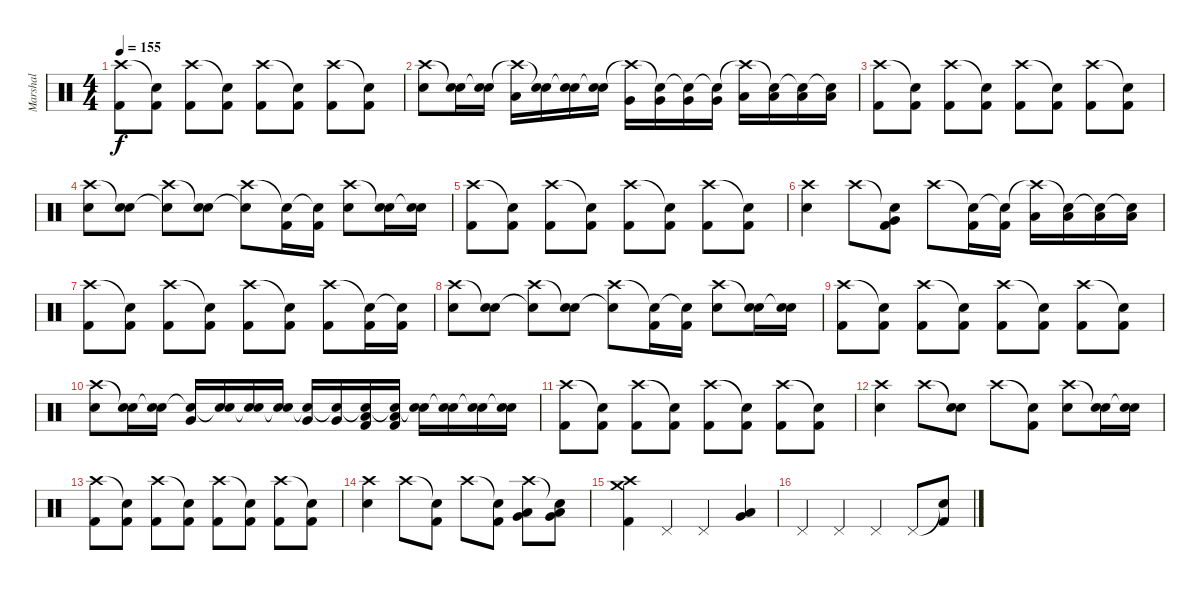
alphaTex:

\track ("Marshal" "Marshal") {instrument percussion}
\staff {score}
\articulation defaults
\ts (4 4)
\tempo 155
\clef neutral
\ks c
("Crash high (hit)" "Kick (hit) 2").8{dy f} ("Snare (hit)"{t} "Kick (hit) 2").8 ("Crash high (hit)" "Kick (hit) 2").8 ("Snare (hit)"{t} "Kick (hit) 2").8 ("Crash high (hit)" "Kick (hit) 2").8 ("Snare (hit)"{t} "Kick (hit) 2").8 ("Crash high (hit)" "Kick (hit) 2").8 ("Snare (hit)"{t} "Kick (hit) 2").8 |
("Crash high (hit)" "Electric Snare (hit)").8 ("Snare (hit)"{t} "Electric Snare (hit)").16 ("Snare (hit)"{t} "Electric Snare (hit)").16 ("Crash high (hit)"{t} "Low Tom (hit)").16 ("Snare (hit)"{t} "Electric Snare (hit)").16 ("Snare (hit)"{t} "Electric Snare (hit)").16 ("Snare (hit)"{t} "Electric Snare (hit)").16 ("Crash high (hit)"{t} "Very Low Tom (hit)").16 ("Snare (hit)"{t} "Very Low Tom (hit)").16 ("Snare (hit)"{t} "Very Low Tom (hit)").16 ("Snare (hit)"{t} "Very Low Tom (hit)").16 ("Crash high (hit)"{t} "Low Floor Tom (hit)").16 ("Snare (hit)"{t} "Low Floor Tom (hit)").16 ("Snare (hit)"{t} "Low Floor Tom (hit)").16 ("Snare (hit)"{t} "Low Floor Tom (hit)").16 |
("Crash high (hit)" "Kick (hit) 2").8 ("Snare (hit)"{t} "Kick (hit) 2").8 ("Crash high (hit)" "Kick (hit) 2").8 ("Snare (hit)"{t} "Kick (hit) 2").8 ("Crash high (hit)" "Kick (hit) 2").8 ("Snare (hit)"{t} "Kick (hit) 2").8 ("Crash high (hit)" "Kick (hit) 2").8 ("Snare (hit)"{t} "Kick (hit) 2").8 |
("Crash high (hit)" "Electric Snare (hit)").8 ("Snare (hit)"{t} "Electric Snare (hit)").8 ("Crash high (hit)" "Snare (hit)"{t}).8 ("Snare (hit)"{t} "Electric Snare (hit)").8 ("Crash high (hit)" "Snare (hit)"{t}).8 ("Snare (hit)"{t} "Kick (hit) 2").16 ("Snare (hit)"{t} "Kick (hit) 2").16 ("Crash high (hit)" "Electric Snare (hit)").8 ("Snare (hit)"{t} "Electric Snare (hit)").16 ("Snare (hit)"{t} "Electric Snare (hit)").16 |
("Crash high (hit)" "Kick (hit) 2").8 ("Snare (hit)"{t} "Kick (hit) 2").8 ("Crash high (hit)" "Kick (hit) 2").8 ("Snare (hit)"{t} "Kick (hit) 2").8 ("Crash high (hit)" "Kick (hit) 2").8 ("Snare (hit)"{t} "Kick (hit) 2").8 ("Crash high (hit)" "Kick (hit) 2").8 ("Snare (hit)"{t} "Kick (hit) 2").8 |
("Crash high (hit)" "Electric Snare (hit)").4 "Crash high (hit)".8 ("Snare (hit)"{t} "Very Low Tom (hit)" "Kick (hit) 2").8 "Crash high (hit)".8 ("Snare (hit)"{t} "Kick (hit) 2").16 ("Snare (hit)"{t} "Kick (hit) 2").16 ("Crash high (hit)"{t} "Low Floor Tom (hit)").16 ("Snare (hit)"{t} "Low Floor Tom (hit)").16 ("Snare (hit)"{t} "Low Floor Tom (hit)").16 ("Snare (hit)"{t} "Low Floor Tom (hit)").16 |
("Crash high (hit)" "Kick (hit) 2").8 ("Snare (hit)"{t} "Kick (hit) 2").8 ("Crash high (hit)" "Kick (hit) 2").8 ("Snare (hit)"{t} "Kick (hit) 2").8 ("Crash high (hit)" "Kick (hit) 2").8 ("Snare (hit)"{t} "Kick (hit) 2").8 ("Crash high (hit)" "Kick (hit) 2").8 ("Snare (hit)"{t} "Kick (hit) 2").16 ("Snare (hit)"{t} "Kick (hit) 2").16 |
("Crash high (hit)" "Electric Snare (hit)").8 ("Snare (hit)"{t} "Electric Snare (hit)").8 ("Crash high (hit)" "Snare (hit)"{t}).8 ("Snare (hit)"{t} "Electric Snare (hit)").8 ("Crash high (hit)" "Snare (hit)"{t}).8 ("Snare (hit)"{t} "Kick (hit) 2").16 ("Snare (hit)"{t} "Kick (hit) 2").16 ("Crash high (hit)" "Electric Snare (hit)").8 ("Snare (hit)"{t} "Electric Snare (hit)").16 ("Snare (hit)"{t} "Electric Snare (hit)").16 |
("Crash high (hit)" "Kick (hit) 2").8 ("Snare (hit)"{t} "Kick (hit) 2").8 ("Crash high (hit)" "Kick (hit) 2").8 ("Snare (hit)"{t} "Kick (hit) 2").8 ("Crash high (hit)" "Kick (hit) 2").8 ("Snare (hit)"{t} "Kick (hit) 2").8 ("Crash high (hit)" "Kick (hit) 2").8 ("Snare (hit)"{t} "Kick (hit) 2").8 |
("Crash high (hit)" "Electric Snare (hit)").8 ("Snare (hit)"{t} "Electric Snare (hit)").16 ("Snare (hit)"{t} "Electric Snare (hit)").16 ("Snare (hit)"{t} "Very Low Tom (hit)").16 ("Snare (hit)"{t} "Electric Snare (hit)").16 ("Snare (hit)"{t} "Electric Snare (hit)").16 ("Snare (hit)"{t} "Electric Snare (hit)").16 ("Snare (hit)"{t} "Very Low Tom (hit)").16 ("Snare (hit)"{t} "Very Low Tom (hit)").16 ("Snare (hit)"{t} "Low Floor Tom (hit)" "Kick (hit) 2").16 ("Snare (hit)"{t} "Low Floor Tom (hit)" "Kick (hit) 2").16 ("Snare (hit)"{t} "Electric Snare (hit)").16 ("Snare (hit)"{t} "Electric Snare (hit)").16 ("Snare (hit)"{t} "Electric Snare (hit)").16 ("Snare (hit)"{t} "Electric Snare (hit)").16 |
("Crash high (hit)" "Kick (hit) 2").8 ("Snare (hit)"{t} "Kick (hit) 2").8 ("Crash high (hit)" "Kick (hit) 2").8 ("Snare (hit)"{t} "Kick (hit) 2").8 ("Crash high (hit)" "Kick (hit) 2").8 ("Snare (hit)"{t} "Kick (hit) 2").8 ("Crash high (hit)" "Kick (hit) 2").8 ("Snare (hit)"{t} "Kick (hit) 2").8 |
("Crash high (hit)" "Electric Snare (hit)").4 "Crash high (hit)".8 ("Snare (hit)"{t} "Electric Snare (hit)").8 "Crash high (hit)".8 ("Snare (hit)"{t} "Kick (hit) 2").8 ("Crash high (hit)" "Electric Snare (hit)").8 ("Snare (hit)"{t} "Electric Snare (hit)").16 ("Snare (hit)"{t} "Electric Snare (hit)").16 |
("Crash high (hit)" "Kick (hit) 2").8 ("Snare (hit)"{t} "Kick (hit) 2").8 ("Crash high (hit)" "Kick (hit) 2").8 ("Snare (hit)"{t} "Kick (hit) 2").8 ("Crash high (hit)" "Kick (hit) 2").8 ("Snare (hit)"{t} "Kick (hit) 2").8 ("Crash high (hit)" "Kick (hit) 2").8 ("Snare (hit)"{t} "Kick (hit) 2").8 |
("Crash high (hit)" "Electric Snare (hit)").4 "Crash high (hit)".8 ("Snare (hit)"{t} "Kick (hit) 2").8 "Crash high (hit)".8 ("Snare (hit)"{t} "Kick (hit) 2").8 ("Crash high (hit)" "Very Low Tom (hit)" "Low Floor Tom (hit)").8 ("Snare (hit)"{t} "Very Low Tom (hit)" "Low Floor Tom (hit)").8 |
("Crash medium (hit)" "Crash high (hit)" "Kick (hit) 2").4 "Pedal Hi-Hat (hit)".4 "Pedal Hi-Hat (hit)".4 ("Very Low Tom (hit)" "Low Floor Tom (hit)").4 |
"Pedal Hi-Hat (hit)".4 "Pedal Hi-Hat (hit)".4 "Pedal Hi-Hat (hit)".4 "Pedal Hi-Hat (hit)".8 ("Snare (hit)"{t} "Kick (hit) 2").8
